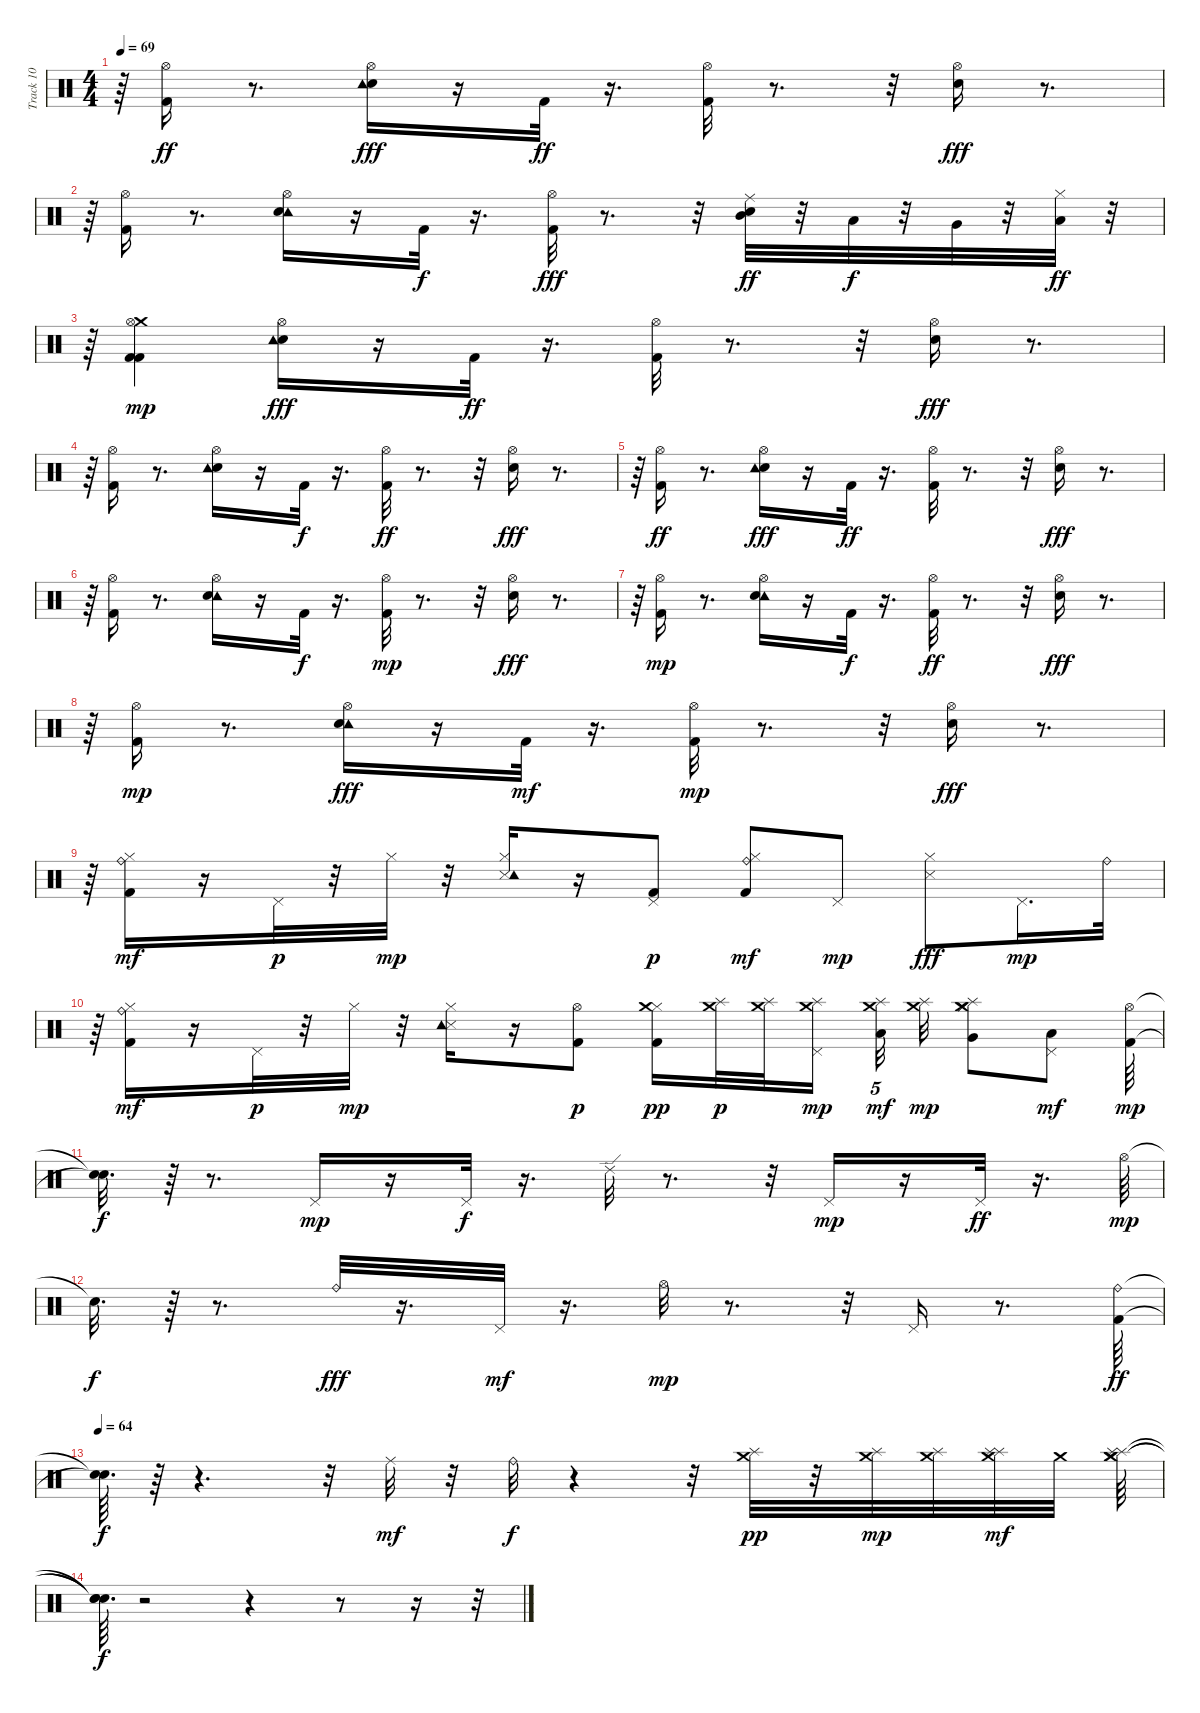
\track ("Track 10" "Track 10") {instrument percussion}
\staff {score}
\articulation defaults
\ts (4 4)
\tempo 69
\clef neutral
\ks c
r.64{dy fff} ("Hi-Hat (open)" "Kick (hit) 2").16{dy ff} r.8{d} ("Snare (hit) 2" "Hi-Hat (open)" "Tambourine (hit)").16{dy fff} r.16 "Kick (hit) 2".32{dy ff} r.16{d} ("Hi-Hat (open)" "Kick (hit) 2").32 r.8{d} r.32 ("Hi-Hat (open)" "Snare (hit) 2").16{dy fff} r.8{d} |
r.64 ("Hi-Hat (open)" "Kick (hit) 2").16 r.8{d} ("Hi-Hat (open)" "Tambourine (hit)" "Snare (hit) 2").16 r.16 "Kick (hit) 2".32{dy f} r.16{d} ("Hi-Hat (open)" "Kick (hit) 2").32{dy fff} r.8{d} r.32 ("Ride (middle)" "Snare (hit) 2" "Mid Tom (hit)").32{dy ff} r.32 "Low Tom (hit)".32{dy f} r.32 "Very Low Tom (hit)".32 r.32 ("Hi-Hat (closed)" "Low Floor Tom (hit)").32{dy ff} r.32 |
r.64 ("Kick (hit) 2" "Crash medium (hit)" "Kick (hit) 2" "Hi-Hat (open)").4{dy mp} ("Hi-Hat (open)" "Snare (hit) 2" "Tambourine (hit)").16{dy fff} r.16 "Kick (hit) 2".32{dy ff} r.16{d} ("Hi-Hat (open)" "Kick (hit) 2").32 r.8{d} r.32 ("Hi-Hat (open)" "Snare (hit) 2").16{dy fff} r.8{d} |
r.64 ("Hi-Hat (open)" "Kick (hit) 2").16 r.8{d} ("Hi-Hat (open)" "Snare (hit) 2" "Tambourine (hit)").16 r.16 "Kick (hit) 2".32{dy f} r.16{d} ("Hi-Hat (open)" "Kick (hit) 2").32{dy ff} r.8{d} r.32 ("Hi-Hat (open)" "Snare (hit) 2").16{dy fff} r.8{d} |
r.64 ("Hi-Hat (open)" "Kick (hit) 2").16{dy ff} r.8{d} ("Snare (hit) 2" "Hi-Hat (open)" "Tambourine (hit)").16{dy fff} r.16 "Kick (hit) 2".32{dy ff} r.16{d} ("Hi-Hat (open)" "Kick (hit) 2").32 r.8{d} r.32 ("Hi-Hat (open)" "Snare (hit) 2").16{dy fff} r.8{d} |
r.64 ("Hi-Hat (open)" "Kick (hit) 2").16 r.8{d} ("Hi-Hat (open)" "Tambourine (hit)" "Snare (hit) 2").16 r.16 "Kick (hit) 2".32{dy f} r.16{d} ("Kick (hit) 2" "Hi-Hat (open)").32{dy mp} r.8{d} r.32 ("Hi-Hat (open)" "Snare (hit) 2").16{dy fff} r.8{d} |
r.64 ("Kick (hit) 2" "Hi-Hat (open)").16{dy mp} r.8{d} ("Tambourine (hit)" "Snare (hit) 2" "Hi-Hat (open)").16 r.16 "Kick (hit) 2".32{dy f} r.16{d} ("Hi-Hat (open)" "Kick (hit) 2").32{dy ff} r.8{d} r.32 ("Hi-Hat (open)" "Snare (hit) 2").16{dy fff} r.8{d} |
r.64 ("Kick (hit) 2" "Hi-Hat (open)").16{dy mp} r.8{d} ("Hi-Hat (open)" "Tambourine (hit)" "Snare (hit) 2").16{dy fff} r.16 "Kick (hit) 2".32{dy mf} r.16{d} ("Kick (hit) 2" "Hi-Hat (open)").32{dy mp} r.8{d} r.32 ("Hi-Hat (open)" "Snare (hit) 2").16{dy fff} r.8{d} |
r.64 ("Kick (hit) 2" "Hi-Hat (closed)" "Ride (bell)").16{dy mf} r.16 "Pedal Hi-Hat (hit)".32{dy p} r.32 "Hi-Hat (closed)".32{dy mp} r.32 ("Snare (side stick) 3" "Tambourine (hit)" "Hi-Hat (closed)").16 r.16 ("Kick (hit) 2" "Pedal Hi-Hat (hit)").8{dy p} ("Kick (hit) 2" "Hi-Hat (closed)" "Ride (bell)").8{dy mf} "Pedal Hi-Hat (hit)".8{dy mp} ("Hi-Hat (closed)" "Snare (side stick) 3").8{dy fff} "Pedal Hi-Hat (hit)".16{d dy mp} "Ride (bell)".32 |
r.64 ("Kick (hit) 2" "Hi-Hat (closed)" "Ride (bell)").16{dy mf} r.16 "Pedal Hi-Hat (hit)".32{dy p} r.32 "Hi-Hat (closed)".32{dy mp} r.32 ("Snare (side stick) 3" "Tambourine (hit)" "Hi-Hat (closed)").16 r.16 ("Kick (hit) 2" "Hi-Hat (open)").8{dy p} ("Kick (hit) 2" "Hi-Hat (closed)" "Crash medium (hit)").16{dy pp} ("Splash (hit)" "Crash medium (hit)").32{dy p} ("Splash (hit)" "Crash medium (hit)").32 ("Pedal Hi-Hat (hit)" "Splash (hit)" "Crash medium (hit)").16{dy mp beam splitsecondary} ("Crash medium (hit)" "Splash (hit)" "Low Tom (hit)").32{tu (5 4) dy mf} ("Crash medium (hit)" "Splash (hit)").32{dy mp} ("Crash medium (hit)" "Splash (hit)" "Hi-Hat (closed)" "Very Low Tom (hit)" "Hi-Hat (closed)").8 ("Pedal Hi-Hat (hit)" "Low Floor Tom (hit)").8{dy mf} ("Kick (hit) 2" "Hi-Hat (open)").64{dy mp} |
("Snare (hit)"{t} "Snare (hit)"{t}).32{d dy f} r.64 r.8{d} "Pedal Hi-Hat (hit)".16{dy mp} r.16 "Pedal Hi-Hat (hit)".32{dy f} r.16{d} "Ride (edge) 2".32 r.8{d} r.32 "Pedal Hi-Hat (hit)".16{dy mp} r.16 "Pedal Hi-Hat (hit)".32{dy ff} r.16{d} "Hi-Hat (open)".64{dy mp} |
"Snare (hit)"{t}.32{d dy f} r.64 r.8{d} "Ride (bell)".32{dy fff} r.16{d} "Pedal Hi-Hat (hit)".32{dy mf} r.16{d} "Hi-Hat (open)".32{dy mp} r.8{d} r.32 "Pedal Hi-Hat (hit)".16 r.8{d} ("Kick (hit) 2" "Ride (bell)").64{dy ff} |
\tempo 64
("Snare (hit)"{t} "Snare (hit)"{t}).64{d dy f} r.64 r.4{d} r.32 "Ride (middle)".32{dy mf} r.32 "Ride (bell)".32{dy f} r.4 r.32 ("Crash medium (hit)" "Splash (hit)").32{dy pp} r.32 ("Splash (hit)" "Crash medium (hit)").32{dy mp} ("Splash (hit)" "Crash medium (hit)").32 ("Splash (hit)" "Crash medium (hit)" "Splash (hit)").32{dy mf} "Crash medium (hit)".32 ("Splash (hit)" "Crash medium (hit)" "Crash medium (hit)" "Splash (hit)").64 |
("Snare (hit)"{t} "Snare (hit)"{t} "Snare (hit)"{t}).64{d dy f} r.2 r.4 r.8 r.16 r.32
